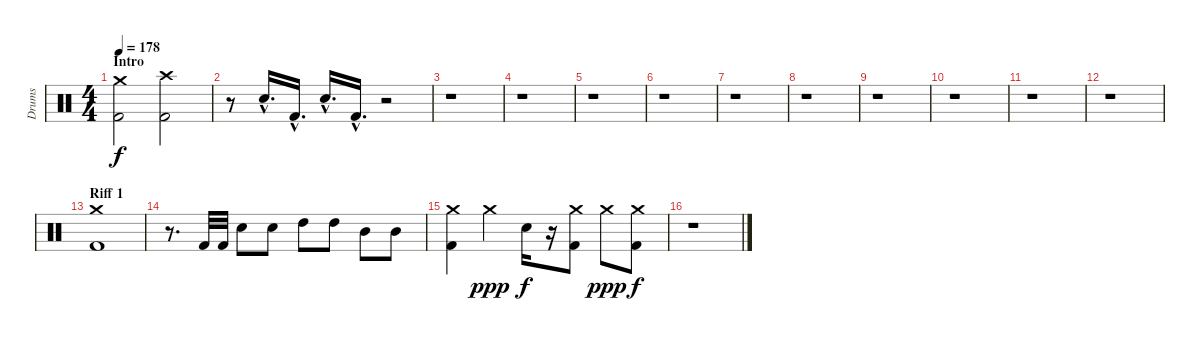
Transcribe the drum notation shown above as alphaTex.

\track ("Drums" "Drums") {instrument percussion}
\staff {score}
\articulation defaults
\ts (4 4)
\section ("" "Intro")
\tempo 178
\clef neutral
\ks c
("Crash medium (hit)" "Kick (hit) 2").2{dy f} ("Crash high (hit)" "Kick (hit) 2").2 |
r.8 "Electric Snare (hit)"{hac}.16{d} "Kick (hit) 2"{hac}.16{d} "Electric Snare (hit)"{hac}.16{d} "Kick (hit) 2"{hac}.16{d} r.2 |
r.1 |
r.1 |
r.1 |
r.1 |
r.1 |
r.1 |
r.1 |
r.1 |
r.1 |
r.1 |
\section ("" "Riff 1")
("Crash medium (hit)" "Kick (hit) 2").1 |
r.8{d} "Kick (hit) 2".32 "Kick (hit) 2".32 "Electric Snare (hit)".8 "Electric Snare (hit)".8 "High Tom (hit)".8 "High Tom (hit)".8 "Mid Tom (hit)".8 "Mid Tom (hit)".8 |
("Crash medium (hit)" "Kick (hit) 2").4 "Crash medium (hit)".4{dy ppp} "Electric Snare (hit)".16{dy f} r.16 ("Crash medium (hit)" "Kick (hit) 2").8 "Crash medium (hit)".8{dy ppp} ("Crash medium (hit)" "Kick (hit) 2").8{dy f} |
r.1
